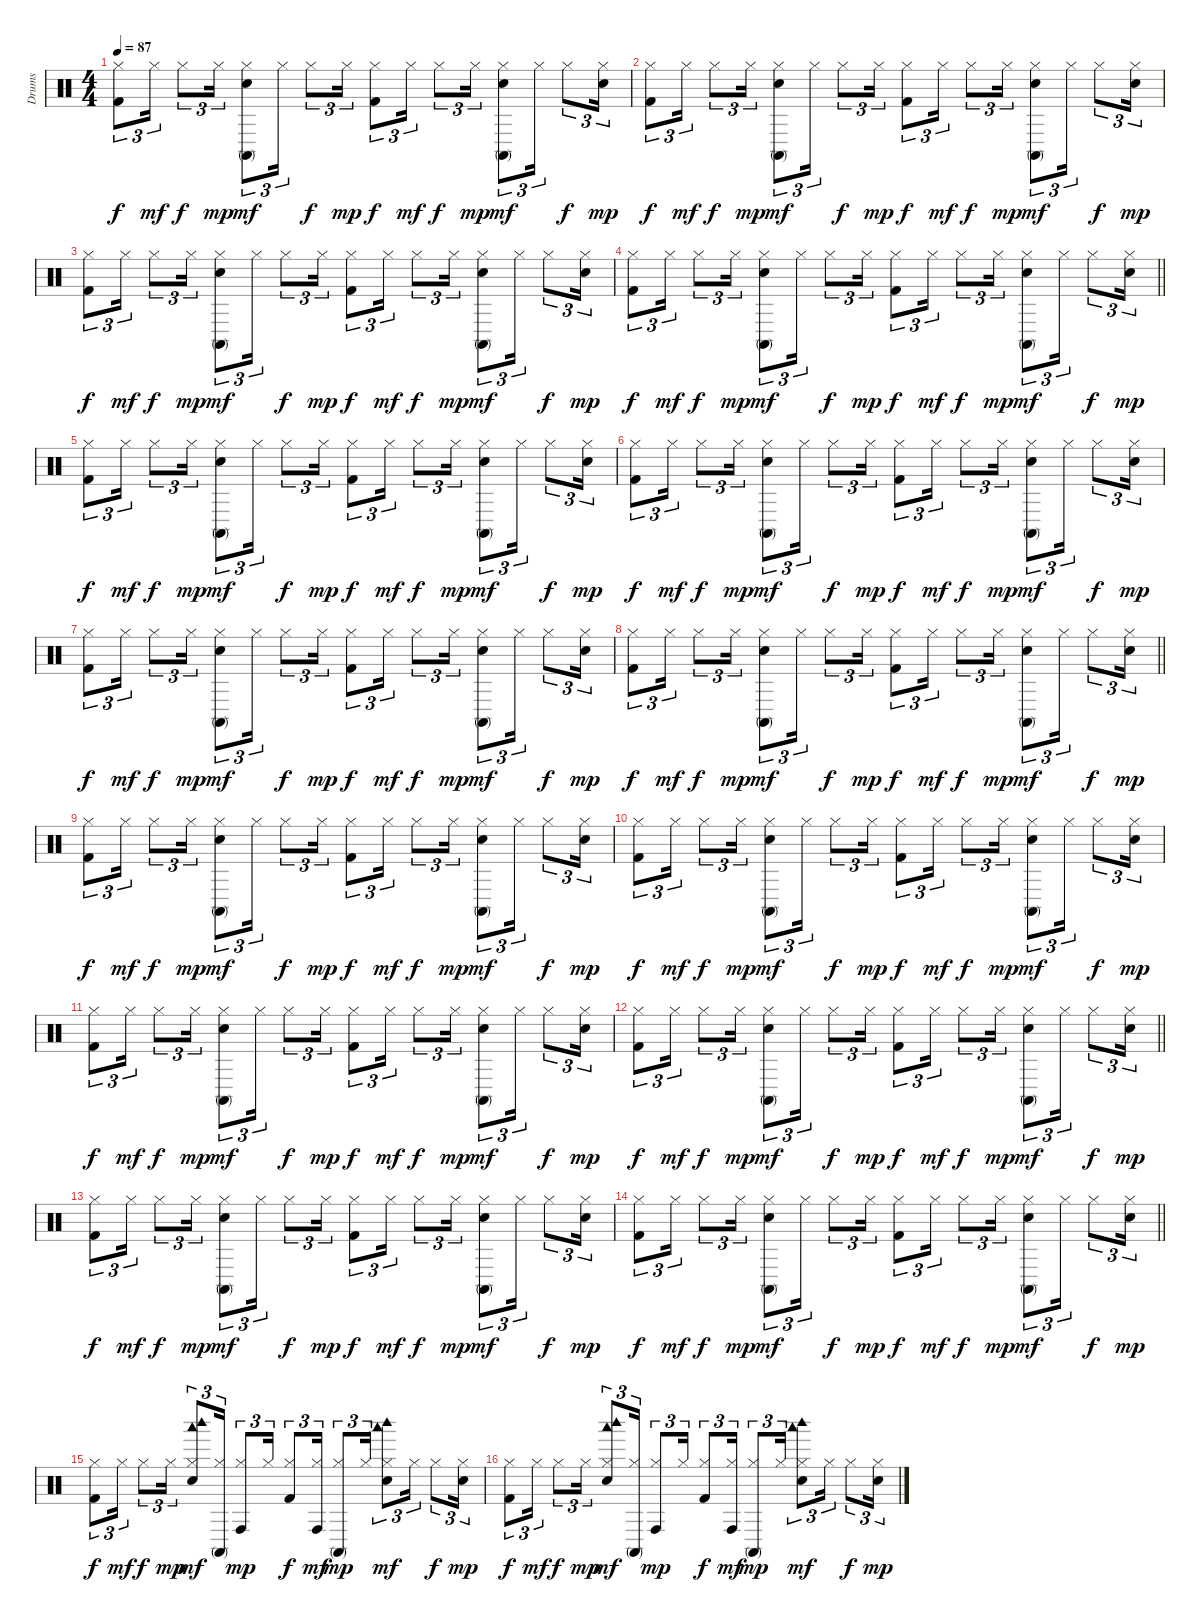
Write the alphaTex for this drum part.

\track ("Drums" "Drums") {instrument percussion}
\staff {score}
\articulation defaults
\ts (4 4)
\tempo 87
\clef neutral
\ks c
("Hi-Hat (closed)" "Kick (hit) 2").8{tu (3 2) dy f} "Hi-Hat (closed)".16{tu (3 2) dy mf} "Hi-Hat (closed)".8{tu (3 2) dy f} "Hi-Hat (closed)".16{tu (3 2) dy mp} ("Conga high (mute)" "Hi-Hat (closed)" "Electric Snare (hit)").8{tu (3 2) dy mf} "Hi-Hat (closed)".16{tu (3 2)} "Hi-Hat (closed)".8{tu (3 2) dy f} "Hi-Hat (closed)".16{tu (3 2) dy mp} ("Hi-Hat (closed)" "Kick (hit) 2").8{tu (3 2) dy f} "Hi-Hat (closed)".16{tu (3 2) dy mf} "Hi-Hat (closed)".8{tu (3 2) dy f} "Hi-Hat (closed)".16{tu (3 2) dy mp} ("Conga high (mute)" "Hi-Hat (closed)" "Electric Snare (hit)").8{tu (3 2) dy mf} "Hi-Hat (closed)".16{tu (3 2)} "Hi-Hat (closed)".8{tu (3 2) dy f} ("Hi-Hat (closed)" "Electric Snare (hit)").16{tu (3 2) dy mp} |
("Hi-Hat (closed)" "Kick (hit) 2").8{tu (3 2) dy f} "Hi-Hat (closed)".16{tu (3 2) dy mf} "Hi-Hat (closed)".8{tu (3 2) dy f} "Hi-Hat (closed)".16{tu (3 2) dy mp} ("Conga high (mute)" "Hi-Hat (closed)" "Electric Snare (hit)").8{tu (3 2) dy mf} "Hi-Hat (closed)".16{tu (3 2)} "Hi-Hat (closed)".8{tu (3 2) dy f} "Hi-Hat (closed)".16{tu (3 2) dy mp} ("Hi-Hat (closed)" "Kick (hit) 2").8{tu (3 2) dy f} "Hi-Hat (closed)".16{tu (3 2) dy mf} "Hi-Hat (closed)".8{tu (3 2) dy f} "Hi-Hat (closed)".16{tu (3 2) dy mp} ("Conga high (mute)" "Hi-Hat (closed)" "Electric Snare (hit)").8{tu (3 2) dy mf} "Hi-Hat (closed)".16{tu (3 2)} "Hi-Hat (closed)".8{tu (3 2) dy f} ("Hi-Hat (closed)" "Electric Snare (hit)").16{tu (3 2) dy mp} |
("Hi-Hat (closed)" "Kick (hit) 2").8{tu (3 2) dy f} "Hi-Hat (closed)".16{tu (3 2) dy mf} "Hi-Hat (closed)".8{tu (3 2) dy f} "Hi-Hat (closed)".16{tu (3 2) dy mp} ("Conga high (mute)" "Hi-Hat (closed)" "Electric Snare (hit)").8{tu (3 2) dy mf} "Hi-Hat (closed)".16{tu (3 2)} "Hi-Hat (closed)".8{tu (3 2) dy f} "Hi-Hat (closed)".16{tu (3 2) dy mp} ("Hi-Hat (closed)" "Kick (hit) 2").8{tu (3 2) dy f} "Hi-Hat (closed)".16{tu (3 2) dy mf} "Hi-Hat (closed)".8{tu (3 2) dy f} "Hi-Hat (closed)".16{tu (3 2) dy mp} ("Conga high (mute)" "Hi-Hat (closed)" "Electric Snare (hit)").8{tu (3 2) dy mf} "Hi-Hat (closed)".16{tu (3 2)} "Hi-Hat (closed)".8{tu (3 2) dy f} ("Hi-Hat (closed)" "Electric Snare (hit)").16{tu (3 2) dy mp} |
\barLineRight lightlight
("Hi-Hat (closed)" "Kick (hit) 2").8{tu (3 2) dy f} "Hi-Hat (closed)".16{tu (3 2) dy mf} "Hi-Hat (closed)".8{tu (3 2) dy f} "Hi-Hat (closed)".16{tu (3 2) dy mp} ("Conga high (mute)" "Hi-Hat (closed)" "Electric Snare (hit)").8{tu (3 2) dy mf} "Hi-Hat (closed)".16{tu (3 2)} "Hi-Hat (closed)".8{tu (3 2) dy f} "Hi-Hat (closed)".16{tu (3 2) dy mp} ("Hi-Hat (closed)" "Kick (hit) 2").8{tu (3 2) dy f} "Hi-Hat (closed)".16{tu (3 2) dy mf} "Hi-Hat (closed)".8{tu (3 2) dy f} "Hi-Hat (closed)".16{tu (3 2) dy mp} ("Conga high (mute)" "Hi-Hat (closed)" "Electric Snare (hit)").8{tu (3 2) dy mf} "Hi-Hat (closed)".16{tu (3 2)} "Hi-Hat (closed)".8{tu (3 2) dy f} ("Hi-Hat (closed)" "Electric Snare (hit)").16{tu (3 2) dy mp} |
("Hi-Hat (closed)" "Kick (hit) 2").8{tu (3 2) dy f} "Hi-Hat (closed)".16{tu (3 2) dy mf} "Hi-Hat (closed)".8{tu (3 2) dy f} "Hi-Hat (closed)".16{tu (3 2) dy mp} ("Conga high (mute)" "Hi-Hat (closed)" "Electric Snare (hit)").8{tu (3 2) dy mf} "Hi-Hat (closed)".16{tu (3 2)} "Hi-Hat (closed)".8{tu (3 2) dy f} "Hi-Hat (closed)".16{tu (3 2) dy mp} ("Hi-Hat (closed)" "Kick (hit) 2").8{tu (3 2) dy f} "Hi-Hat (closed)".16{tu (3 2) dy mf} "Hi-Hat (closed)".8{tu (3 2) dy f} "Hi-Hat (closed)".16{tu (3 2) dy mp} ("Conga high (mute)" "Hi-Hat (closed)" "Electric Snare (hit)").8{tu (3 2) dy mf} "Hi-Hat (closed)".16{tu (3 2)} "Hi-Hat (closed)".8{tu (3 2) dy f} ("Hi-Hat (closed)" "Electric Snare (hit)").16{tu (3 2) dy mp} |
("Hi-Hat (closed)" "Kick (hit) 2").8{tu (3 2) dy f} "Hi-Hat (closed)".16{tu (3 2) dy mf} "Hi-Hat (closed)".8{tu (3 2) dy f} "Hi-Hat (closed)".16{tu (3 2) dy mp} ("Conga high (mute)" "Hi-Hat (closed)" "Electric Snare (hit)").8{tu (3 2) dy mf} "Hi-Hat (closed)".16{tu (3 2)} "Hi-Hat (closed)".8{tu (3 2) dy f} "Hi-Hat (closed)".16{tu (3 2) dy mp} ("Hi-Hat (closed)" "Kick (hit) 2").8{tu (3 2) dy f} "Hi-Hat (closed)".16{tu (3 2) dy mf} "Hi-Hat (closed)".8{tu (3 2) dy f} "Hi-Hat (closed)".16{tu (3 2) dy mp} ("Conga high (mute)" "Hi-Hat (closed)" "Electric Snare (hit)").8{tu (3 2) dy mf} "Hi-Hat (closed)".16{tu (3 2)} "Hi-Hat (closed)".8{tu (3 2) dy f} ("Hi-Hat (closed)" "Electric Snare (hit)").16{tu (3 2) dy mp} |
("Hi-Hat (closed)" "Kick (hit) 2").8{tu (3 2) dy f} "Hi-Hat (closed)".16{tu (3 2) dy mf} "Hi-Hat (closed)".8{tu (3 2) dy f} "Hi-Hat (closed)".16{tu (3 2) dy mp} ("Conga high (mute)" "Hi-Hat (closed)" "Electric Snare (hit)").8{tu (3 2) dy mf} "Hi-Hat (closed)".16{tu (3 2)} "Hi-Hat (closed)".8{tu (3 2) dy f} "Hi-Hat (closed)".16{tu (3 2) dy mp} ("Hi-Hat (closed)" "Kick (hit) 2").8{tu (3 2) dy f} "Hi-Hat (closed)".16{tu (3 2) dy mf} "Hi-Hat (closed)".8{tu (3 2) dy f} "Hi-Hat (closed)".16{tu (3 2) dy mp} ("Conga high (mute)" "Hi-Hat (closed)" "Electric Snare (hit)").8{tu (3 2) dy mf} "Hi-Hat (closed)".16{tu (3 2)} "Hi-Hat (closed)".8{tu (3 2) dy f} ("Hi-Hat (closed)" "Electric Snare (hit)").16{tu (3 2) dy mp} |
\barLineRight lightlight
("Hi-Hat (closed)" "Kick (hit) 2").8{tu (3 2) dy f} "Hi-Hat (closed)".16{tu (3 2) dy mf} "Hi-Hat (closed)".8{tu (3 2) dy f} "Hi-Hat (closed)".16{tu (3 2) dy mp} ("Conga high (mute)" "Hi-Hat (closed)" "Electric Snare (hit)").8{tu (3 2) dy mf} "Hi-Hat (closed)".16{tu (3 2)} "Hi-Hat (closed)".8{tu (3 2) dy f} "Hi-Hat (closed)".16{tu (3 2) dy mp} ("Hi-Hat (closed)" "Kick (hit) 2").8{tu (3 2) dy f} "Hi-Hat (closed)".16{tu (3 2) dy mf} "Hi-Hat (closed)".8{tu (3 2) dy f} "Hi-Hat (closed)".16{tu (3 2) dy mp} ("Conga high (mute)" "Hi-Hat (closed)" "Electric Snare (hit)").8{tu (3 2) dy mf} "Hi-Hat (closed)".16{tu (3 2)} "Hi-Hat (closed)".8{tu (3 2) dy f} ("Hi-Hat (closed)" "Electric Snare (hit)").16{tu (3 2) dy mp} |
("Hi-Hat (closed)" "Kick (hit) 2").8{tu (3 2) dy f} "Hi-Hat (closed)".16{tu (3 2) dy mf} "Hi-Hat (closed)".8{tu (3 2) dy f} "Hi-Hat (closed)".16{tu (3 2) dy mp} ("Conga high (mute)" "Hi-Hat (closed)" "Electric Snare (hit)").8{tu (3 2) dy mf} "Hi-Hat (closed)".16{tu (3 2)} "Hi-Hat (closed)".8{tu (3 2) dy f} "Hi-Hat (closed)".16{tu (3 2) dy mp} ("Hi-Hat (closed)" "Kick (hit) 2").8{tu (3 2) dy f} "Hi-Hat (closed)".16{tu (3 2) dy mf} "Hi-Hat (closed)".8{tu (3 2) dy f} "Hi-Hat (closed)".16{tu (3 2) dy mp} ("Conga high (mute)" "Hi-Hat (closed)" "Electric Snare (hit)").8{tu (3 2) dy mf} "Hi-Hat (closed)".16{tu (3 2)} "Hi-Hat (closed)".8{tu (3 2) dy f} ("Hi-Hat (closed)" "Electric Snare (hit)").16{tu (3 2) dy mp} |
("Hi-Hat (closed)" "Kick (hit) 2").8{tu (3 2) dy f} "Hi-Hat (closed)".16{tu (3 2) dy mf} "Hi-Hat (closed)".8{tu (3 2) dy f} "Hi-Hat (closed)".16{tu (3 2) dy mp} ("Conga high (mute)" "Hi-Hat (closed)" "Electric Snare (hit)").8{tu (3 2) dy mf} "Hi-Hat (closed)".16{tu (3 2)} "Hi-Hat (closed)".8{tu (3 2) dy f} "Hi-Hat (closed)".16{tu (3 2) dy mp} ("Hi-Hat (closed)" "Kick (hit) 2").8{tu (3 2) dy f} "Hi-Hat (closed)".16{tu (3 2) dy mf} "Hi-Hat (closed)".8{tu (3 2) dy f} "Hi-Hat (closed)".16{tu (3 2) dy mp} ("Conga high (mute)" "Hi-Hat (closed)" "Electric Snare (hit)").8{tu (3 2) dy mf} "Hi-Hat (closed)".16{tu (3 2)} "Hi-Hat (closed)".8{tu (3 2) dy f} ("Hi-Hat (closed)" "Electric Snare (hit)").16{tu (3 2) dy mp} |
("Hi-Hat (closed)" "Kick (hit) 2").8{tu (3 2) dy f} "Hi-Hat (closed)".16{tu (3 2) dy mf} "Hi-Hat (closed)".8{tu (3 2) dy f} "Hi-Hat (closed)".16{tu (3 2) dy mp} ("Conga high (mute)" "Hi-Hat (closed)" "Electric Snare (hit)").8{tu (3 2) dy mf} "Hi-Hat (closed)".16{tu (3 2)} "Hi-Hat (closed)".8{tu (3 2) dy f} "Hi-Hat (closed)".16{tu (3 2) dy mp} ("Hi-Hat (closed)" "Kick (hit) 2").8{tu (3 2) dy f} "Hi-Hat (closed)".16{tu (3 2) dy mf} "Hi-Hat (closed)".8{tu (3 2) dy f} "Hi-Hat (closed)".16{tu (3 2) dy mp} ("Conga high (mute)" "Hi-Hat (closed)" "Electric Snare (hit)").8{tu (3 2) dy mf} "Hi-Hat (closed)".16{tu (3 2)} "Hi-Hat (closed)".8{tu (3 2) dy f} ("Hi-Hat (closed)" "Electric Snare (hit)").16{tu (3 2) dy mp} |
\barLineRight lightlight
("Hi-Hat (closed)" "Kick (hit) 2").8{tu (3 2) dy f} "Hi-Hat (closed)".16{tu (3 2) dy mf} "Hi-Hat (closed)".8{tu (3 2) dy f} "Hi-Hat (closed)".16{tu (3 2) dy mp} ("Conga high (mute)" "Hi-Hat (closed)" "Electric Snare (hit)").8{tu (3 2) dy mf} "Hi-Hat (closed)".16{tu (3 2)} "Hi-Hat (closed)".8{tu (3 2) dy f} "Hi-Hat (closed)".16{tu (3 2) dy mp} ("Hi-Hat (closed)" "Kick (hit) 2").8{tu (3 2) dy f} "Hi-Hat (closed)".16{tu (3 2) dy mf} "Hi-Hat (closed)".8{tu (3 2) dy f} "Hi-Hat (closed)".16{tu (3 2) dy mp} ("Conga high (mute)" "Hi-Hat (closed)" "Electric Snare (hit)").8{tu (3 2) dy mf} "Hi-Hat (closed)".16{tu (3 2)} "Hi-Hat (closed)".8{tu (3 2) dy f} ("Hi-Hat (closed)" "Electric Snare (hit)").16{tu (3 2) dy mp} |
("Hi-Hat (closed)" "Kick (hit) 2").8{tu (3 2) dy f} "Hi-Hat (closed)".16{tu (3 2) dy mf} "Hi-Hat (closed)".8{tu (3 2) dy f} "Hi-Hat (closed)".16{tu (3 2) dy mp} ("Conga high (mute)" "Hi-Hat (closed)" "Electric Snare (hit)").8{tu (3 2) dy mf} "Hi-Hat (closed)".16{tu (3 2)} "Hi-Hat (closed)".8{tu (3 2) dy f} "Hi-Hat (closed)".16{tu (3 2) dy mp} ("Hi-Hat (closed)" "Kick (hit) 2").8{tu (3 2) dy f} "Hi-Hat (closed)".16{tu (3 2) dy mf} "Hi-Hat (closed)".8{tu (3 2) dy f} "Hi-Hat (closed)".16{tu (3 2) dy mp} ("Conga high (mute)" "Hi-Hat (closed)" "Electric Snare (hit)").8{tu (3 2) dy mf} "Hi-Hat (closed)".16{tu (3 2)} "Hi-Hat (closed)".8{tu (3 2) dy f} ("Hi-Hat (closed)" "Electric Snare (hit)").16{tu (3 2) dy mp} |
\barLineRight lightlight
("Hi-Hat (closed)" "Kick (hit) 2").8{tu (3 2) dy f} "Hi-Hat (closed)".16{tu (3 2) dy mf} "Hi-Hat (closed)".8{tu (3 2) dy f} "Hi-Hat (closed)".16{tu (3 2) dy mp} ("Conga high (mute)" "Hi-Hat (closed)" "Electric Snare (hit)").8{tu (3 2) dy mf} "Hi-Hat (closed)".16{tu (3 2)} "Hi-Hat (closed)".8{tu (3 2) dy f} "Hi-Hat (closed)".16{tu (3 2) dy mp} ("Hi-Hat (closed)" "Kick (hit) 2").8{tu (3 2) dy f} "Hi-Hat (closed)".16{tu (3 2) dy mf} "Hi-Hat (closed)".8{tu (3 2) dy f} "Hi-Hat (closed)".16{tu (3 2) dy mp} ("Conga high (mute)" "Hi-Hat (closed)" "Electric Snare (hit)").8{tu (3 2) dy mf} "Hi-Hat (closed)".16{tu (3 2)} "Hi-Hat (closed)".8{tu (3 2) dy f} ("Hi-Hat (closed)" "Electric Snare (hit)").16{tu (3 2) dy mp} |
("Hi-Hat (closed)" "Kick (hit) 2").8{tu (3 2) dy f} "Hi-Hat (closed)".16{tu (3 2) dy mf} "Hi-Hat (closed)".8{tu (3 2) dy f} "Hi-Hat (closed)".16{tu (3 2) dy mp} ("Woodblock low (hit)" "Woodblock high (hit)" "Hi-Hat (closed)" "Electric Snare (hit)").8{tu (3 2) dy mf} ("Conga high (mute)" "Hi-Hat (closed)").16{tu (3 2)} ("Conga high (hit)" "Hi-Hat (closed)").8{tu (3 2) dy mp} "Hi-Hat (closed)".16{tu (3 2)} ("Hi-Hat (closed)" "Kick (hit) 2").8{tu (3 2) dy f} ("Conga high (hit)" "Hi-Hat (closed)").16{tu (3 2) dy mf} ("Conga high (mute)" "Hi-Hat (closed)").8{tu (3 2) dy mp} "Hi-Hat (closed)".16{tu (3 2)} ("Woodblock low (hit)" "Woodblock high (hit)" "Hi-Hat (closed)" "Electric Snare (hit)").8{tu (3 2) dy mf} "Hi-Hat (closed)".16{tu (3 2)} "Hi-Hat (closed)".8{tu (3 2) dy f} ("Hi-Hat (closed)" "Electric Snare (hit)").16{tu (3 2) dy mp} |
("Hi-Hat (closed)" "Kick (hit) 2").8{tu (3 2) dy f} "Hi-Hat (closed)".16{tu (3 2) dy mf} "Hi-Hat (closed)".8{tu (3 2) dy f} "Hi-Hat (closed)".16{tu (3 2) dy mp} ("Woodblock low (hit)" "Woodblock high (hit)" "Hi-Hat (closed)" "Electric Snare (hit)").8{tu (3 2) dy mf} ("Conga high (mute)" "Hi-Hat (closed)").16{tu (3 2)} ("Conga high (hit)" "Hi-Hat (closed)").8{tu (3 2) dy mp} "Hi-Hat (closed)".16{tu (3 2)} ("Hi-Hat (closed)" "Kick (hit) 2").8{tu (3 2) dy f} ("Conga high (hit)" "Hi-Hat (closed)").16{tu (3 2) dy mf} ("Conga high (mute)" "Hi-Hat (closed)").8{tu (3 2) dy mp} "Hi-Hat (closed)".16{tu (3 2)} ("Woodblock low (hit)" "Woodblock high (hit)" "Hi-Hat (closed)" "Electric Snare (hit)").8{tu (3 2) dy mf} "Hi-Hat (closed)".16{tu (3 2)} "Hi-Hat (closed)".8{tu (3 2) dy f} ("Hi-Hat (closed)" "Electric Snare (hit)").16{tu (3 2) dy mp}
